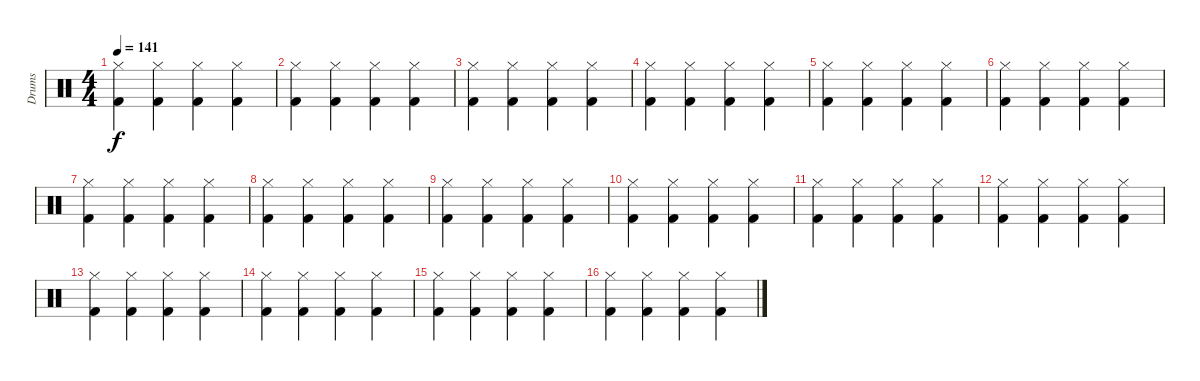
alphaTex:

\track ("Drums" "Drums") {instrument percussion}
\staff {score}
\articulation defaults
\ts (4 4)
\tempo 141
\clef neutral
\ks c
("Hi-Hat (closed)" "Kick (hit) 2").4{dy f} ("Hi-Hat (closed)" "Kick (hit) 2").4 ("Hi-Hat (closed)" "Kick (hit) 2").4 ("Hi-Hat (closed)" "Kick (hit) 2").4 |
("Hi-Hat (closed)" "Kick (hit) 2").4 ("Hi-Hat (closed)" "Kick (hit) 2").4 ("Hi-Hat (closed)" "Kick (hit) 2").4 ("Hi-Hat (closed)" "Kick (hit) 2").4 |
("Hi-Hat (closed)" "Kick (hit) 2").4 ("Hi-Hat (closed)" "Kick (hit) 2").4 ("Hi-Hat (closed)" "Kick (hit) 2").4 ("Hi-Hat (closed)" "Kick (hit) 2").4 |
("Hi-Hat (closed)" "Kick (hit) 2").4 ("Hi-Hat (closed)" "Kick (hit) 2").4 ("Hi-Hat (closed)" "Kick (hit) 2").4 ("Hi-Hat (closed)" "Kick (hit) 2").4 |
("Hi-Hat (closed)" "Kick (hit) 2").4 ("Hi-Hat (closed)" "Kick (hit) 2").4 ("Hi-Hat (closed)" "Kick (hit) 2").4 ("Hi-Hat (closed)" "Kick (hit) 2").4 |
("Hi-Hat (closed)" "Kick (hit) 2").4 ("Hi-Hat (closed)" "Kick (hit) 2").4 ("Hi-Hat (closed)" "Kick (hit) 2").4 ("Hi-Hat (closed)" "Kick (hit) 2").4 |
("Hi-Hat (closed)" "Kick (hit) 2").4 ("Hi-Hat (closed)" "Kick (hit) 2").4 ("Hi-Hat (closed)" "Kick (hit) 2").4 ("Hi-Hat (closed)" "Kick (hit) 2").4 |
("Hi-Hat (closed)" "Kick (hit) 2").4 ("Hi-Hat (closed)" "Kick (hit) 2").4 ("Hi-Hat (closed)" "Kick (hit) 2").4 ("Hi-Hat (closed)" "Kick (hit) 2").4 |
("Hi-Hat (closed)" "Kick (hit) 2").4 ("Hi-Hat (closed)" "Kick (hit) 2").4 ("Hi-Hat (closed)" "Kick (hit) 2").4 ("Hi-Hat (closed)" "Kick (hit) 2").4 |
("Hi-Hat (closed)" "Kick (hit) 2").4 ("Hi-Hat (closed)" "Kick (hit) 2").4 ("Hi-Hat (closed)" "Kick (hit) 2").4 ("Hi-Hat (closed)" "Kick (hit) 2").4 |
("Hi-Hat (closed)" "Kick (hit) 2").4 ("Hi-Hat (closed)" "Kick (hit) 2").4 ("Hi-Hat (closed)" "Kick (hit) 2").4 ("Hi-Hat (closed)" "Kick (hit) 2").4 |
("Hi-Hat (closed)" "Kick (hit) 2").4 ("Hi-Hat (closed)" "Kick (hit) 2").4 ("Hi-Hat (closed)" "Kick (hit) 2").4 ("Hi-Hat (closed)" "Kick (hit) 2").4 |
("Hi-Hat (closed)" "Kick (hit) 2").4 ("Hi-Hat (closed)" "Kick (hit) 2").4 ("Hi-Hat (closed)" "Kick (hit) 2").4 ("Hi-Hat (closed)" "Kick (hit) 2").4 |
("Hi-Hat (closed)" "Kick (hit) 2").4 ("Hi-Hat (closed)" "Kick (hit) 2").4 ("Hi-Hat (closed)" "Kick (hit) 2").4 ("Hi-Hat (closed)" "Kick (hit) 2").4 |
("Hi-Hat (closed)" "Kick (hit) 2").4 ("Hi-Hat (closed)" "Kick (hit) 2").4 ("Hi-Hat (closed)" "Kick (hit) 2").4 ("Hi-Hat (closed)" "Kick (hit) 2").4 |
("Hi-Hat (closed)" "Kick (hit) 2").4 ("Hi-Hat (closed)" "Kick (hit) 2").4 ("Hi-Hat (closed)" "Kick (hit) 2").4 ("Hi-Hat (closed)" "Kick (hit) 2").4
